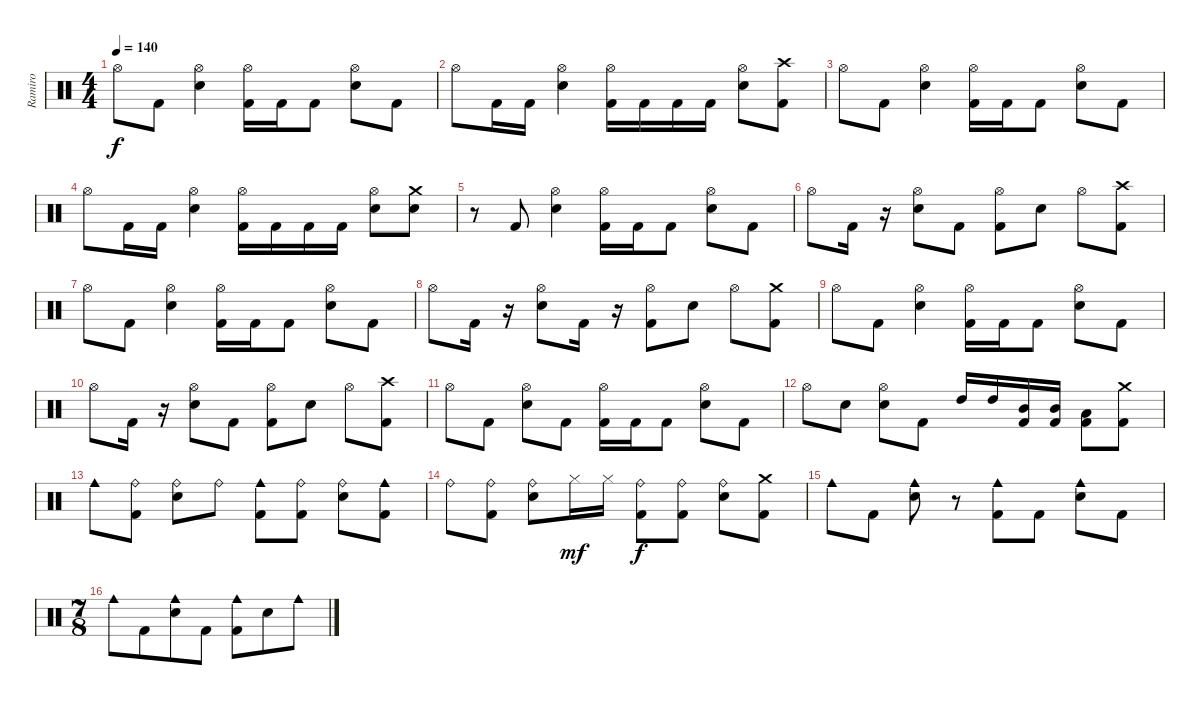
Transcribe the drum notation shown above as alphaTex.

\track ("Ramiro" "Ramiro") {instrument percussion}
\staff {score}
\articulation defaults
\ts (4 4)
\tempo 140
\clef neutral
\ks c "Hi-Hat (open)".8{dy f} "Kick (hit) 2".8
("Electric Snare (hit)" "Hi-Hat (open)").4 ("Kick (hit) 2" "Hi-Hat (open)").16 "Kick (hit) 2".16 "Kick (hit) 2".8 ("Hi-Hat (open)" "Electric Snare (hit)").8 "Kick (hit) 2".8 |
"Hi-Hat (open)".8 "Kick (hit) 2".16 "Kick (hit) 2".16 ("Electric Snare (hit)" "Hi-Hat (open)").4 ("Hi-Hat (open)" "Kick (hit) 2").16 "Kick (hit) 2".16 "Kick (hit) 2".16 "Kick (hit) 2".16 ("Hi-Hat (open)" "Electric Snare (hit)").8 ("Crash high (hit)" "Kick (hit) 2").8 |
"Hi-Hat (open)".8 "Kick (hit) 2".8 ("Electric Snare (hit)" "Hi-Hat (open)").4 ("Kick (hit) 2" "Hi-Hat (open)").16 "Kick (hit) 2".16 "Kick (hit) 2".8 ("Hi-Hat (open)" "Electric Snare (hit)").8 "Kick (hit) 2".8 |
"Hi-Hat (open)".8 "Kick (hit) 2".16 "Kick (hit) 2".16 ("Electric Snare (hit)" "Hi-Hat (open)").4 ("Hi-Hat (open)" "Kick (hit) 2").16 "Kick (hit) 2".16 "Kick (hit) 2".16 "Kick (hit) 2".16 ("Hi-Hat (open)" "Electric Snare (hit)").8 ("Electric Snare (hit)" "Crash medium (hit)").8 |
r.8 "Kick (hit) 2".8 ("Electric Snare (hit)" "Hi-Hat (open)").4 ("Kick (hit) 2" "Hi-Hat (open)").16 "Kick (hit) 2".16 "Kick (hit) 2".8 ("Hi-Hat (open)" "Electric Snare (hit)").8 "Kick (hit) 2".8 |
"Hi-Hat (open)".8 "Kick (hit) 2".16 r.16 ("Electric Snare (hit)" "Hi-Hat (open)").8 "Kick (hit) 2".8 ("Hi-Hat (open)" "Kick (hit) 2").8 "Electric Snare (hit)".8 "Hi-Hat (open)".8 ("Kick (hit) 2" "Crash high (hit)").8 |
"Hi-Hat (open)".8 "Kick (hit) 2".8 ("Electric Snare (hit)" "Hi-Hat (open)").4 ("Kick (hit) 2" "Hi-Hat (open)").16 "Kick (hit) 2".16 "Kick (hit) 2".8 ("Hi-Hat (open)" "Electric Snare (hit)").8 "Kick (hit) 2".8 |
"Hi-Hat (open)".8 "Kick (hit) 2".16 r.16 ("Electric Snare (hit)" "Hi-Hat (open)").8 "Kick (hit) 2".16 r.16 ("Hi-Hat (open)" "Kick (hit) 2").8 "Electric Snare (hit)".8 "Hi-Hat (open)".8 ("Crash medium (hit)" "Kick (hit) 2").8 |
"Hi-Hat (open)".8 "Kick (hit) 2".8 ("Electric Snare (hit)" "Hi-Hat (open)").4 ("Kick (hit) 2" "Hi-Hat (open)").16 "Kick (hit) 2".16 "Kick (hit) 2".8 ("Hi-Hat (open)" "Electric Snare (hit)").8 "Kick (hit) 2".8 |
"Hi-Hat (open)".8 "Kick (hit) 2".16 r.16 ("Electric Snare (hit)" "Hi-Hat (open)").8 "Kick (hit) 2".8 ("Hi-Hat (open)" "Kick (hit) 2").8 "Electric Snare (hit)".8 "Hi-Hat (open)".8 ("Crash high (hit)" "Kick (hit) 2").8 |
"Hi-Hat (open)".8 "Kick (hit) 2".8 ("Electric Snare (hit)" "Hi-Hat (open)").8 "Kick (hit) 2".8 ("Kick (hit) 2" "Hi-Hat (open)").16 "Kick (hit) 2".16 "Kick (hit) 2".8 ("Hi-Hat (open)" "Electric Snare (hit)").8 "Kick (hit) 2".8 |
"Hi-Hat (open)".8 "Electric Snare (hit)".8 ("Electric Snare (hit)" "Hi-Hat (open)").8 "Kick (hit) 2".8 "High Tom (hit)".16 "High Tom (hit)".16 ("Mid Tom (hit)" "Kick (hit) 2").16 ("Mid Tom (hit)" "Kick (hit) 2").16 ("Low Tom (hit)" "Kick (hit) 2").8 ("Crash medium (hit)" "Kick (hit) 2").8 |
"Cowbell medium (hit)".8 ("Kick (hit) 2" "Ride (bell)").8 ("Electric Snare (hit)" "Ride (bell)").8 "Ride (bell)".8 ("Kick (hit) 2" "Cowbell medium (hit)").8 ("Kick (hit) 2" "Ride (bell)").8 ("Electric Snare (hit)" "Ride (bell)").8 ("Kick (hit) 2" "Cowbell medium (hit)").8 |
"Ride (bell)".8 ("Kick (hit) 2" "Ride (bell)").8 ("Electric Snare (hit)" "Ride (bell)").8 "Hi-Hat (closed)".16{dy mf} "Hi-Hat (closed)".16 ("Kick (hit) 2" "Ride (bell)").8{dy f} ("Kick (hit) 2" "Ride (bell)").8 ("Electric Snare (hit)" "Ride (bell)").8 ("Kick (hit) 2" "Crash medium (hit)").8 |
"Cowbell medium (hit)".8 "Kick (hit) 2".8 ("Electric Snare (hit)" "Cowbell medium (hit)").8 r.8 ("Kick (hit) 2" "Cowbell medium (hit)").8 "Kick (hit) 2".8 ("Electric Snare (hit)" "Cowbell medium (hit)").8 "Kick (hit) 2".8 |
\ts (7 8)
"Cowbell medium (hit)".8 "Kick (hit) 2".8 ("Electric Snare (hit)" "Cowbell medium (hit)").8 "Kick (hit) 2".8 ("Kick (hit) 2" "Cowbell medium (hit)").8 "Electric Snare (hit)".8 "Cowbell medium (hit)".8
